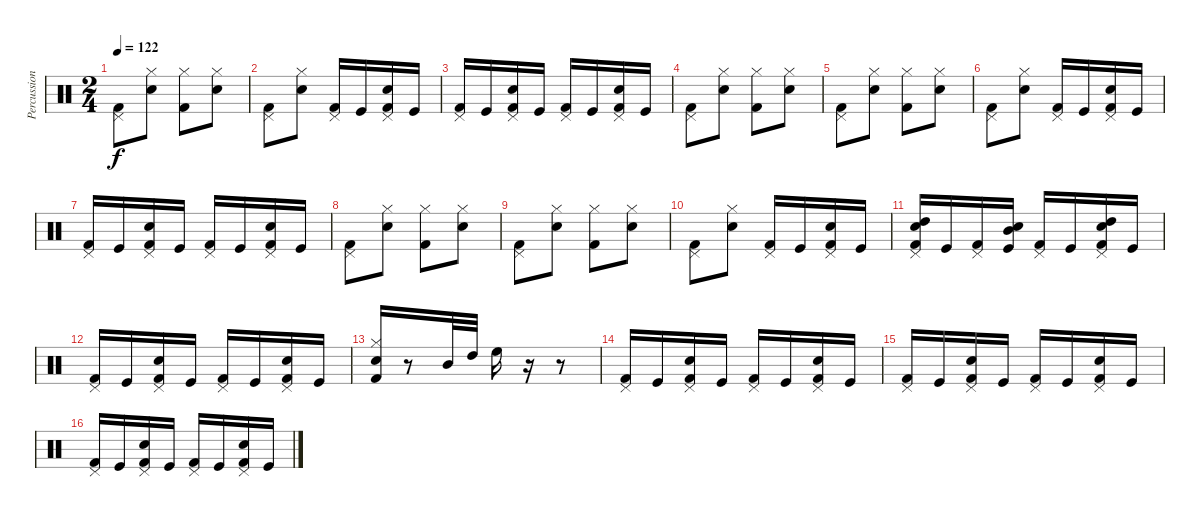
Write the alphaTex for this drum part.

\track ("Percussions" "Percussion") {instrument percussion}
\staff {score}
\articulation defaults
\ts (2 4)
\tempo 122
\clef neutral
\ks c
("Pedal Hi-Hat (hit)" "Kick (hit) 2").8{dy f} ("Hi-Hat (closed)" "Snare (hit) 2").8 ("Hi-Hat (closed)" "Kick (hit) 2").8 ("Hi-Hat (closed)" "Snare (hit) 2").8 |
("Pedal Hi-Hat (hit)" "Kick (hit) 2").8 ("Hi-Hat (closed)" "Snare (hit) 2").8 ("Pedal Hi-Hat (hit)" "Kick (hit) 2").16 "Kick (hit)".16 ("Pedal Hi-Hat (hit)" "Snare (hit) 2" "Kick (hit) 2").16 "Kick (hit)".16 |
("Pedal Hi-Hat (hit)" "Kick (hit) 2").16 "Kick (hit)".16 ("Pedal Hi-Hat (hit)" "Snare (hit) 2" "Kick (hit) 2").16 "Kick (hit)".16 ("Pedal Hi-Hat (hit)" "Kick (hit) 2").16 "Kick (hit)".16 ("Pedal Hi-Hat (hit)" "Snare (hit) 2" "Kick (hit) 2").16 "Kick (hit)".16 |
("Pedal Hi-Hat (hit)" "Kick (hit) 2").8 ("Hi-Hat (closed)" "Snare (hit) 2").8 ("Hi-Hat (closed)" "Kick (hit) 2").8 ("Hi-Hat (closed)" "Snare (hit) 2").8 |
("Pedal Hi-Hat (hit)" "Kick (hit) 2").8 ("Hi-Hat (closed)" "Snare (hit) 2").8 ("Hi-Hat (closed)" "Kick (hit) 2").8 ("Hi-Hat (closed)" "Snare (hit) 2").8 |
("Pedal Hi-Hat (hit)" "Kick (hit) 2").8 ("Hi-Hat (closed)" "Snare (hit) 2").8 ("Pedal Hi-Hat (hit)" "Kick (hit) 2").16 "Kick (hit)".16 ("Pedal Hi-Hat (hit)" "Snare (hit) 2" "Kick (hit) 2").16 "Kick (hit)".16 |
("Pedal Hi-Hat (hit)" "Kick (hit) 2").16 "Kick (hit)".16 ("Pedal Hi-Hat (hit)" "Snare (hit) 2" "Kick (hit) 2").16 "Kick (hit)".16 ("Pedal Hi-Hat (hit)" "Kick (hit) 2").16 "Kick (hit)".16 ("Pedal Hi-Hat (hit)" "Snare (hit) 2" "Kick (hit) 2").16 "Kick (hit)".16 |
("Pedal Hi-Hat (hit)" "Kick (hit) 2").8 ("Hi-Hat (closed)" "Snare (hit) 2").8 ("Hi-Hat (closed)" "Kick (hit) 2").8 ("Hi-Hat (closed)" "Snare (hit) 2").8 |
("Pedal Hi-Hat (hit)" "Kick (hit) 2").8 ("Hi-Hat (closed)" "Snare (hit) 2").8 ("Hi-Hat (closed)" "Kick (hit) 2").8 ("Hi-Hat (closed)" "Snare (hit) 2").8 |
("Pedal Hi-Hat (hit)" "Kick (hit) 2").8 ("Hi-Hat (closed)" "Snare (hit) 2").8 ("Pedal Hi-Hat (hit)" "Kick (hit) 2").16 "Kick (hit)".16 ("Pedal Hi-Hat (hit)" "Snare (hit) 2" "Kick (hit) 2").16 "Kick (hit)".16 |
("Pedal Hi-Hat (hit)" "High Tom (hit)" "Snare (hit) 2" "Kick (hit) 2").16 "Kick (hit)".16 ("Pedal Hi-Hat (hit)" "Kick (hit) 2").16 ("Mid Tom (hit)" "Snare (hit) 2" "Kick (hit)").16 ("Pedal Hi-Hat (hit)" "Kick (hit) 2").16 "Kick (hit)".16 ("Pedal Hi-Hat (hit)" "High Tom (hit)" "Snare (hit) 2" "Kick (hit) 2").16 "Kick (hit)".16 |
("Pedal Hi-Hat (hit)" "Kick (hit) 2").16 "Kick (hit)".16 ("Pedal Hi-Hat (hit)" "Snare (hit) 2" "Kick (hit) 2").16 "Kick (hit)".16 ("Pedal Hi-Hat (hit)" "Kick (hit) 2").16 "Kick (hit)".16 ("Pedal Hi-Hat (hit)" "Snare (hit) 2" "Kick (hit) 2").16 "Kick (hit)".16 |
("Hi-Hat (closed)" "Snare (hit) 2" "Kick (hit) 2").16 r.8 "Mid Tom (hit)".32 "High Tom (hit)".32 "High Floor Tom (hit)".16 r.16 r.8 |
("Pedal Hi-Hat (hit)" "Kick (hit) 2").16 "Kick (hit)".16 ("Pedal Hi-Hat (hit)" "Snare (hit) 2" "Kick (hit) 2").16 "Kick (hit)".16 ("Pedal Hi-Hat (hit)" "Kick (hit) 2").16 "Kick (hit)".16 ("Pedal Hi-Hat (hit)" "Snare (hit) 2" "Kick (hit) 2").16 "Kick (hit)".16 |
("Pedal Hi-Hat (hit)" "Kick (hit) 2").16 "Kick (hit)".16 ("Pedal Hi-Hat (hit)" "Snare (hit) 2" "Kick (hit) 2").16 "Kick (hit)".16 ("Pedal Hi-Hat (hit)" "Kick (hit) 2").16 "Kick (hit)".16 ("Pedal Hi-Hat (hit)" "Snare (hit) 2" "Kick (hit) 2").16 "Kick (hit)".16 |
("Pedal Hi-Hat (hit)" "Kick (hit) 2").16 "Kick (hit)".16 ("Pedal Hi-Hat (hit)" "Snare (hit) 2" "Kick (hit) 2").16 "Kick (hit)".16 ("Pedal Hi-Hat (hit)" "Kick (hit) 2").16 "Kick (hit)".16 ("Pedal Hi-Hat (hit)" "Snare (hit) 2" "Kick (hit) 2").16 "Kick (hit)".16
